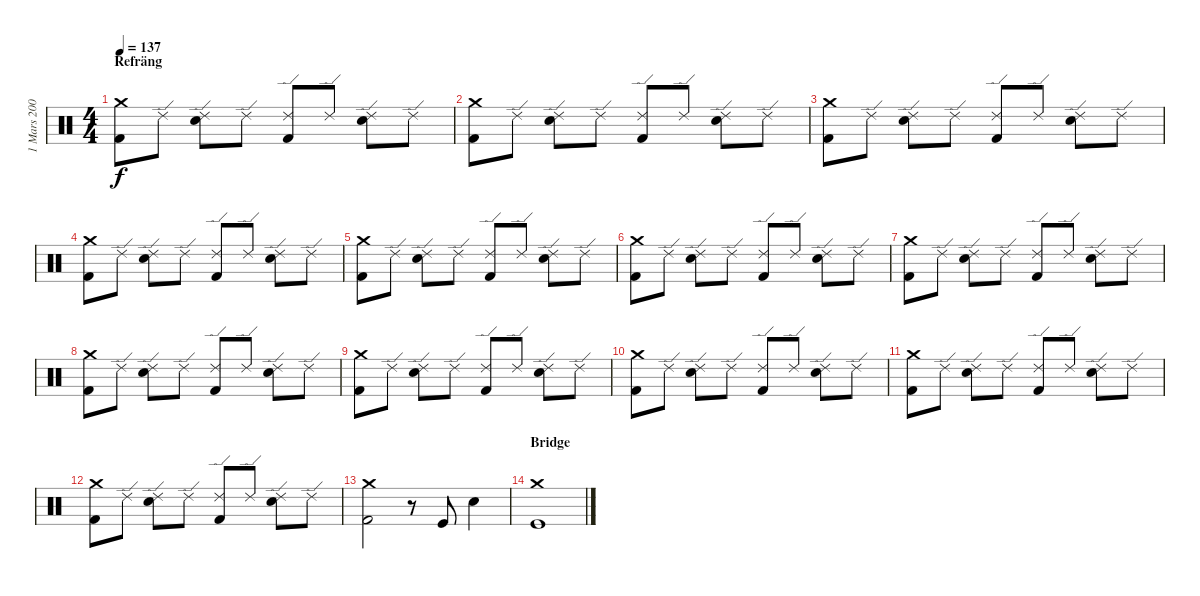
\track ("1 Mars 2004" "1 Mars 200") {instrument percussion}
\staff {score}
\articulation defaults
\ts (4 4)
\section ("" "Refräng")
\tempo 137
\clef neutral
\ks c
("Crash medium (hit)" "Kick (hit) 2").8{dy f} "Ride (edge) 2".8 ("Ride (edge) 2" "Electric Snare (hit)").8 "Ride (edge) 2".8 ("Ride (edge) 2" "Kick (hit) 2").8 "Ride (edge) 2".8 ("Ride (edge) 2" "Electric Snare (hit)").8 "Ride (edge) 2".8 |
("Crash medium (hit)" "Kick (hit) 2").8 "Ride (edge) 2".8 ("Ride (edge) 2" "Electric Snare (hit)").8 "Ride (edge) 2".8 ("Ride (edge) 2" "Kick (hit) 2").8 "Ride (edge) 2".8 ("Ride (edge) 2" "Electric Snare (hit)").8 "Ride (edge) 2".8 |
("Crash medium (hit)" "Kick (hit) 2").8 "Ride (edge) 2".8 ("Ride (edge) 2" "Electric Snare (hit)").8 "Ride (edge) 2".8 ("Ride (edge) 2" "Kick (hit) 2").8 "Ride (edge) 2".8 ("Ride (edge) 2" "Electric Snare (hit)").8 "Ride (edge) 2".8 |
("Crash medium (hit)" "Kick (hit) 2").8 "Ride (edge) 2".8 ("Ride (edge) 2" "Electric Snare (hit)").8 "Ride (edge) 2".8 ("Ride (edge) 2" "Kick (hit) 2").8 "Ride (edge) 2".8 ("Ride (edge) 2" "Electric Snare (hit)").8 "Ride (edge) 2".8 |
("Crash medium (hit)" "Kick (hit) 2").8 "Ride (edge) 2".8 ("Ride (edge) 2" "Electric Snare (hit)").8 "Ride (edge) 2".8 ("Ride (edge) 2" "Kick (hit) 2").8 "Ride (edge) 2".8 ("Ride (edge) 2" "Electric Snare (hit)").8 "Ride (edge) 2".8 |
("Crash medium (hit)" "Kick (hit) 2").8 "Ride (edge) 2".8 ("Ride (edge) 2" "Electric Snare (hit)").8 "Ride (edge) 2".8 ("Ride (edge) 2" "Kick (hit) 2").8 "Ride (edge) 2".8 ("Ride (edge) 2" "Electric Snare (hit)").8 "Ride (edge) 2".8 |
("Crash medium (hit)" "Kick (hit) 2").8 "Ride (edge) 2".8 ("Ride (edge) 2" "Electric Snare (hit)").8 "Ride (edge) 2".8 ("Ride (edge) 2" "Kick (hit) 2").8 "Ride (edge) 2".8 ("Ride (edge) 2" "Electric Snare (hit)").8 "Ride (edge) 2".8 |
("Crash medium (hit)" "Kick (hit) 2").8 "Ride (edge) 2".8 ("Ride (edge) 2" "Electric Snare (hit)").8 "Ride (edge) 2".8 ("Ride (edge) 2" "Kick (hit) 2").8 "Ride (edge) 2".8 ("Ride (edge) 2" "Electric Snare (hit)").8 "Ride (edge) 2".8 |
("Crash medium (hit)" "Kick (hit) 2").8 "Ride (edge) 2".8 ("Ride (edge) 2" "Electric Snare (hit)").8 "Ride (edge) 2".8 ("Ride (edge) 2" "Kick (hit) 2").8 "Ride (edge) 2".8 ("Ride (edge) 2" "Electric Snare (hit)").8 "Ride (edge) 2".8 |
("Crash medium (hit)" "Kick (hit) 2").8 "Ride (edge) 2".8 ("Ride (edge) 2" "Electric Snare (hit)").8 "Ride (edge) 2".8 ("Ride (edge) 2" "Kick (hit) 2").8 "Ride (edge) 2".8 ("Ride (edge) 2" "Electric Snare (hit)").8 "Ride (edge) 2".8 |
("Crash medium (hit)" "Kick (hit) 2").8 "Ride (edge) 2".8 ("Ride (edge) 2" "Electric Snare (hit)").8 "Ride (edge) 2".8 ("Ride (edge) 2" "Kick (hit) 2").8 "Ride (edge) 2".8 ("Ride (edge) 2" "Electric Snare (hit)").8 "Ride (edge) 2".8 |
("Crash medium (hit)" "Kick (hit) 2").8 "Ride (edge) 2".8 ("Ride (edge) 2" "Electric Snare (hit)").8 "Ride (edge) 2".8 ("Ride (edge) 2" "Kick (hit) 2").8 "Ride (edge) 2".8 ("Ride (edge) 2" "Electric Snare (hit)").8 "Ride (edge) 2".8 |
("Crash medium (hit)" "Kick (hit) 2").2 r.8 "Kick (hit)".8 "Electric Snare (hit)".4 |
\section ("" "Bridge")
("Crash medium (hit)" "Kick (hit)").1
